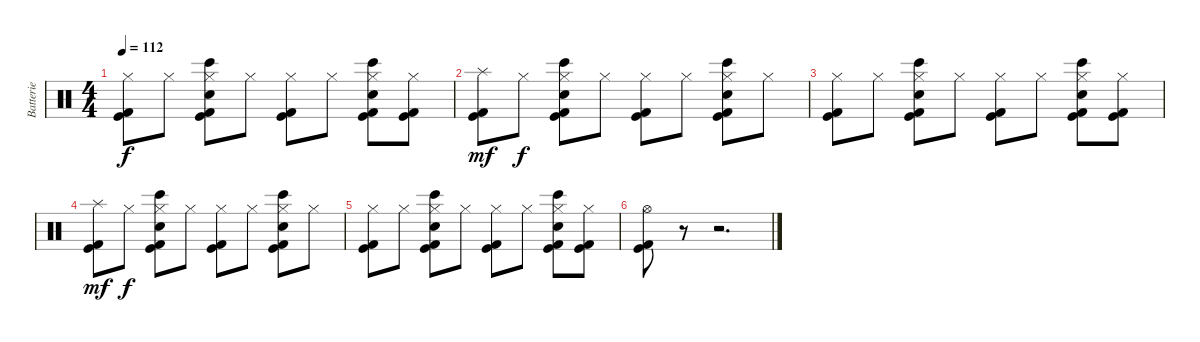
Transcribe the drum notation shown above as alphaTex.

\track ("Batterie" "Batterie") {instrument percussion}
\staff {score}
\articulation defaults
\ts (4 4)
\tempo 112
\clef neutral
\ks c
("Hi-Hat (closed)" "Kick (hit)" "Kick (hit) 2").8{dy f} "Hi-Hat (closed)".8 ("Hi-Hat (closed)" "Electric Snare (hit)" "Bongo High (hit)" "Kick (hit)" "Kick (hit) 2").8 "Hi-Hat (closed)".8 ("Hi-Hat (closed)" "Kick (hit)" "Kick (hit) 2").8 "Hi-Hat (closed)".8 ("Hi-Hat (closed)" "Electric Snare (hit)" "Bongo High (hit)" "Kick (hit)" "Kick (hit) 2").8 ("Hi-Hat (closed)" "Kick (hit)" "Kick (hit) 2").8 |
("Splash (hit)" "Kick (hit)" "Kick (hit) 2").8{dy mf} "Hi-Hat (closed)".8{dy f} ("Hi-Hat (closed)" "Electric Snare (hit)" "Bongo High (hit)" "Kick (hit)" "Kick (hit) 2").8 "Hi-Hat (closed)".8 ("Hi-Hat (closed)" "Kick (hit)" "Kick (hit) 2").8 "Hi-Hat (closed)".8 ("Hi-Hat (closed)" "Electric Snare (hit)" "Bongo High (hit)" "Kick (hit)" "Kick (hit) 2").8 "Hi-Hat (closed)".8 |
("Hi-Hat (closed)" "Kick (hit)" "Kick (hit) 2").8 "Hi-Hat (closed)".8 ("Hi-Hat (closed)" "Electric Snare (hit)" "Bongo High (hit)" "Kick (hit)" "Kick (hit) 2").8 "Hi-Hat (closed)".8 ("Hi-Hat (closed)" "Kick (hit)" "Kick (hit) 2").8 "Hi-Hat (closed)".8 ("Hi-Hat (closed)" "Electric Snare (hit)" "Bongo High (hit)" "Kick (hit)" "Kick (hit) 2").8 ("Hi-Hat (closed)" "Kick (hit)" "Kick (hit) 2").8 |
("Splash (hit)" "Kick (hit)" "Kick (hit) 2").8{dy mf} "Hi-Hat (closed)".8{dy f} ("Hi-Hat (closed)" "Electric Snare (hit)" "Bongo High (hit)" "Kick (hit)" "Kick (hit) 2").8 "Hi-Hat (closed)".8 ("Hi-Hat (closed)" "Kick (hit)" "Kick (hit) 2").8 "Hi-Hat (closed)".8 ("Hi-Hat (closed)" "Electric Snare (hit)" "Bongo High (hit)" "Kick (hit)" "Kick (hit) 2").8 "Hi-Hat (closed)".8 |
("Hi-Hat (closed)" "Kick (hit)" "Kick (hit) 2").8 "Hi-Hat (closed)".8 ("Hi-Hat (closed)" "Electric Snare (hit)" "Bongo High (hit)" "Kick (hit)" "Kick (hit) 2").8 "Hi-Hat (closed)".8 ("Hi-Hat (closed)" "Kick (hit)" "Kick (hit) 2").8 "Hi-Hat (closed)".8 ("Hi-Hat (closed)" "Electric Snare (hit)" "Bongo High (hit)" "Kick (hit)" "Kick (hit) 2").8 ("Hi-Hat (closed)" "Kick (hit)" "Kick (hit) 2").8 |
("Hi-Hat (open)" "Kick (hit)" "Kick (hit) 2").8 r.8 r.2{d}
